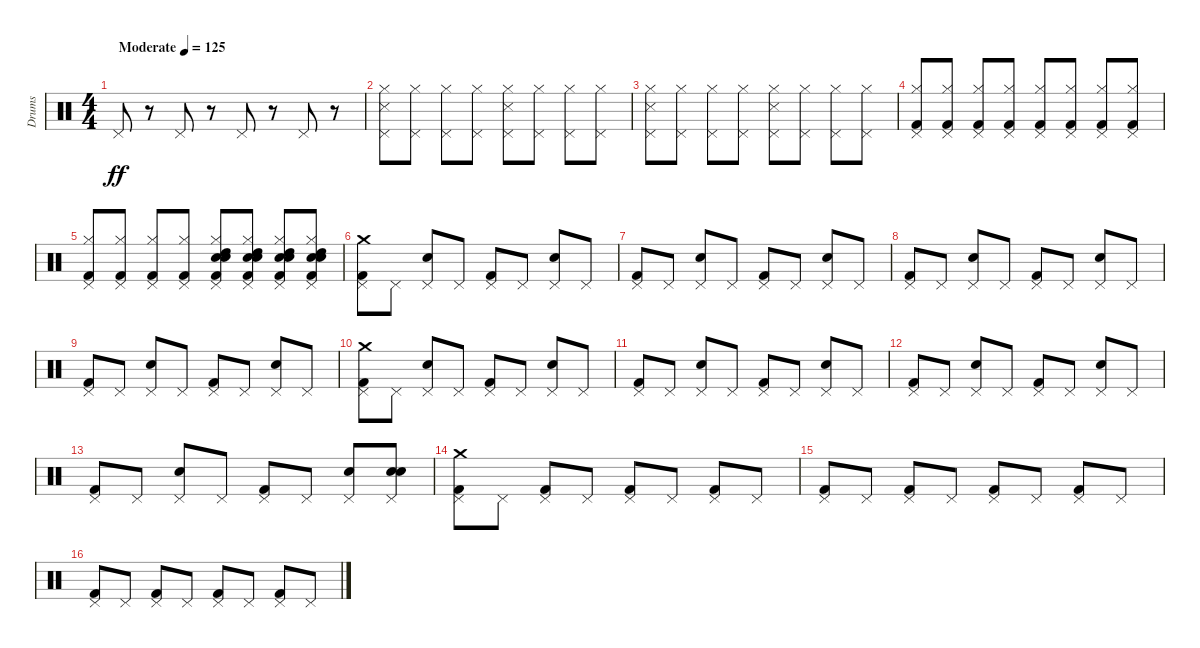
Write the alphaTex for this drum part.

\track ("Drums" "Drums") {instrument percussion}
\staff {score}
\articulation defaults
\ts (4 4)
\tempo (125 "Moderate")
\clef neutral
\ks c "Pedal Hi-Hat (hit)".8{dy ff}
r.8 "Pedal Hi-Hat (hit)".8 r.8 "Pedal Hi-Hat (hit)".8 r.8 "Pedal Hi-Hat (hit)".8 r.8 |
("Pedal Hi-Hat (hit)" "Snare (side stick) 3" "Hi-Hat (closed)").8 ("Pedal Hi-Hat (hit)" "Hi-Hat (closed)").8 ("Pedal Hi-Hat (hit)" "Hi-Hat (closed)").8 ("Pedal Hi-Hat (hit)" "Hi-Hat (closed)").8 ("Pedal Hi-Hat (hit)" "Snare (side stick) 3" "Hi-Hat (closed)").8 ("Pedal Hi-Hat (hit)" "Hi-Hat (closed)").8 ("Pedal Hi-Hat (hit)" "Hi-Hat (closed)").8 ("Pedal Hi-Hat (hit)" "Hi-Hat (closed)").8 |
("Pedal Hi-Hat (hit)" "Snare (side stick) 3" "Hi-Hat (closed)").8 ("Pedal Hi-Hat (hit)" "Hi-Hat (closed)").8 ("Pedal Hi-Hat (hit)" "Hi-Hat (closed)").8 ("Pedal Hi-Hat (hit)" "Hi-Hat (closed)").8 ("Pedal Hi-Hat (hit)" "Snare (side stick) 3" "Hi-Hat (closed)").8 ("Pedal Hi-Hat (hit)" "Hi-Hat (closed)").8 ("Pedal Hi-Hat (hit)" "Hi-Hat (closed)").8 ("Pedal Hi-Hat (hit)" "Hi-Hat (closed)").8 |
("Pedal Hi-Hat (hit)" "Kick (hit) 2" "Hi-Hat (closed)").8 ("Pedal Hi-Hat (hit)" "Kick (hit) 2" "Hi-Hat (closed)").8 ("Pedal Hi-Hat (hit)" "Kick (hit) 2" "Hi-Hat (closed)").8 ("Pedal Hi-Hat (hit)" "Kick (hit) 2" "Hi-Hat (closed)").8 ("Pedal Hi-Hat (hit)" "Kick (hit) 2" "Hi-Hat (closed)").8 ("Pedal Hi-Hat (hit)" "Kick (hit) 2" "Hi-Hat (closed)").8 ("Pedal Hi-Hat (hit)" "Kick (hit) 2" "Hi-Hat (closed)").8 ("Pedal Hi-Hat (hit)" "Kick (hit) 2" "Hi-Hat (closed)").8 |
("Pedal Hi-Hat (hit)" "Kick (hit) 2" "Hi-Hat (closed)").8 ("Pedal Hi-Hat (hit)" "Kick (hit) 2" "Hi-Hat (closed)").8 ("Pedal Hi-Hat (hit)" "Kick (hit) 2" "Hi-Hat (closed)").8 ("Pedal Hi-Hat (hit)" "Kick (hit) 2" "Hi-Hat (closed)").8 ("Pedal Hi-Hat (hit)" "Kick (hit) 2" "Electric Snare (hit)" "High Tom (hit)" "Hi-Hat (closed)" "Electric Snare (hit)").8 ("Pedal Hi-Hat (hit)" "Kick (hit) 2" "Electric Snare (hit)" "High Tom (hit)" "Hi-Hat (closed)" "Electric Snare (hit)").8 ("Pedal Hi-Hat (hit)" "Kick (hit) 2" "Electric Snare (hit)" "High Tom (hit)" "Hi-Hat (closed)" "Electric Snare (hit)").8 ("Pedal Hi-Hat (hit)" "Kick (hit) 2" "Electric Snare (hit)" "High Tom (hit)" "Hi-Hat (closed)" "Electric Snare (hit)").8 |
("Pedal Hi-Hat (hit)" "Kick (hit) 2" "Crash medium (hit)").8 "Pedal Hi-Hat (hit)".8 ("Pedal Hi-Hat (hit)" "Electric Snare (hit)").8 "Pedal Hi-Hat (hit)".8 ("Pedal Hi-Hat (hit)" "Kick (hit) 2").8 "Pedal Hi-Hat (hit)".8 ("Pedal Hi-Hat (hit)" "Electric Snare (hit)").8 "Pedal Hi-Hat (hit)".8 |
("Pedal Hi-Hat (hit)" "Kick (hit) 2").8 "Pedal Hi-Hat (hit)".8 ("Pedal Hi-Hat (hit)" "Electric Snare (hit)").8 "Pedal Hi-Hat (hit)".8 ("Pedal Hi-Hat (hit)" "Kick (hit) 2").8 "Pedal Hi-Hat (hit)".8 ("Pedal Hi-Hat (hit)" "Electric Snare (hit)").8 "Pedal Hi-Hat (hit)".8 |
("Pedal Hi-Hat (hit)" "Kick (hit) 2").8 "Pedal Hi-Hat (hit)".8 ("Pedal Hi-Hat (hit)" "Electric Snare (hit)").8 "Pedal Hi-Hat (hit)".8 ("Pedal Hi-Hat (hit)" "Kick (hit) 2").8 "Pedal Hi-Hat (hit)".8 ("Pedal Hi-Hat (hit)" "Electric Snare (hit)").8 "Pedal Hi-Hat (hit)".8 |
("Pedal Hi-Hat (hit)" "Kick (hit) 2").8 "Pedal Hi-Hat (hit)".8 ("Pedal Hi-Hat (hit)" "Electric Snare (hit)").8 "Pedal Hi-Hat (hit)".8 ("Pedal Hi-Hat (hit)" "Kick (hit) 2").8 "Pedal Hi-Hat (hit)".8 ("Pedal Hi-Hat (hit)" "Electric Snare (hit)").8 "Pedal Hi-Hat (hit)".8 |
("Pedal Hi-Hat (hit)" "Kick (hit) 2" "Crash medium (hit)").8 "Pedal Hi-Hat (hit)".8 ("Pedal Hi-Hat (hit)" "Electric Snare (hit)").8 "Pedal Hi-Hat (hit)".8 ("Pedal Hi-Hat (hit)" "Kick (hit) 2").8 "Pedal Hi-Hat (hit)".8 ("Pedal Hi-Hat (hit)" "Electric Snare (hit)").8 "Pedal Hi-Hat (hit)".8 |
("Pedal Hi-Hat (hit)" "Kick (hit) 2").8 "Pedal Hi-Hat (hit)".8 ("Pedal Hi-Hat (hit)" "Electric Snare (hit)").8 "Pedal Hi-Hat (hit)".8 ("Pedal Hi-Hat (hit)" "Kick (hit) 2").8 "Pedal Hi-Hat (hit)".8 ("Pedal Hi-Hat (hit)" "Electric Snare (hit)").8 "Pedal Hi-Hat (hit)".8 |
("Pedal Hi-Hat (hit)" "Kick (hit) 2").8 "Pedal Hi-Hat (hit)".8 ("Pedal Hi-Hat (hit)" "Electric Snare (hit)").8 "Pedal Hi-Hat (hit)".8 ("Pedal Hi-Hat (hit)" "Kick (hit) 2").8 "Pedal Hi-Hat (hit)".8 ("Pedal Hi-Hat (hit)" "Electric Snare (hit)").8 "Pedal Hi-Hat (hit)".8 |
("Pedal Hi-Hat (hit)" "Kick (hit) 2").8 "Pedal Hi-Hat (hit)".8 ("Pedal Hi-Hat (hit)" "Electric Snare (hit)").8 "Pedal Hi-Hat (hit)".8 ("Pedal Hi-Hat (hit)" "Kick (hit) 2").8 "Pedal Hi-Hat (hit)".8 ("Pedal Hi-Hat (hit)" "Electric Snare (hit)").8 ("Pedal Hi-Hat (hit)" "Electric Snare (hit)" "Electric Snare (hit)").8 |
("Pedal Hi-Hat (hit)" "Kick (hit) 2" "Crash medium (hit)").8 "Pedal Hi-Hat (hit)".8 ("Pedal Hi-Hat (hit)" "Kick (hit) 2").8 "Pedal Hi-Hat (hit)".8 ("Pedal Hi-Hat (hit)" "Kick (hit) 2").8 "Pedal Hi-Hat (hit)".8 ("Pedal Hi-Hat (hit)" "Kick (hit) 2").8 "Pedal Hi-Hat (hit)".8 |
("Pedal Hi-Hat (hit)" "Kick (hit) 2").8 "Pedal Hi-Hat (hit)".8 ("Pedal Hi-Hat (hit)" "Kick (hit) 2").8 "Pedal Hi-Hat (hit)".8 ("Pedal Hi-Hat (hit)" "Kick (hit) 2").8 "Pedal Hi-Hat (hit)".8 ("Pedal Hi-Hat (hit)" "Kick (hit) 2").8 "Pedal Hi-Hat (hit)".8 |
("Pedal Hi-Hat (hit)" "Kick (hit) 2").8 "Pedal Hi-Hat (hit)".8 ("Pedal Hi-Hat (hit)" "Kick (hit) 2").8 "Pedal Hi-Hat (hit)".8 ("Pedal Hi-Hat (hit)" "Kick (hit) 2").8 "Pedal Hi-Hat (hit)".8 ("Pedal Hi-Hat (hit)" "Kick (hit) 2").8 "Pedal Hi-Hat (hit)".8
